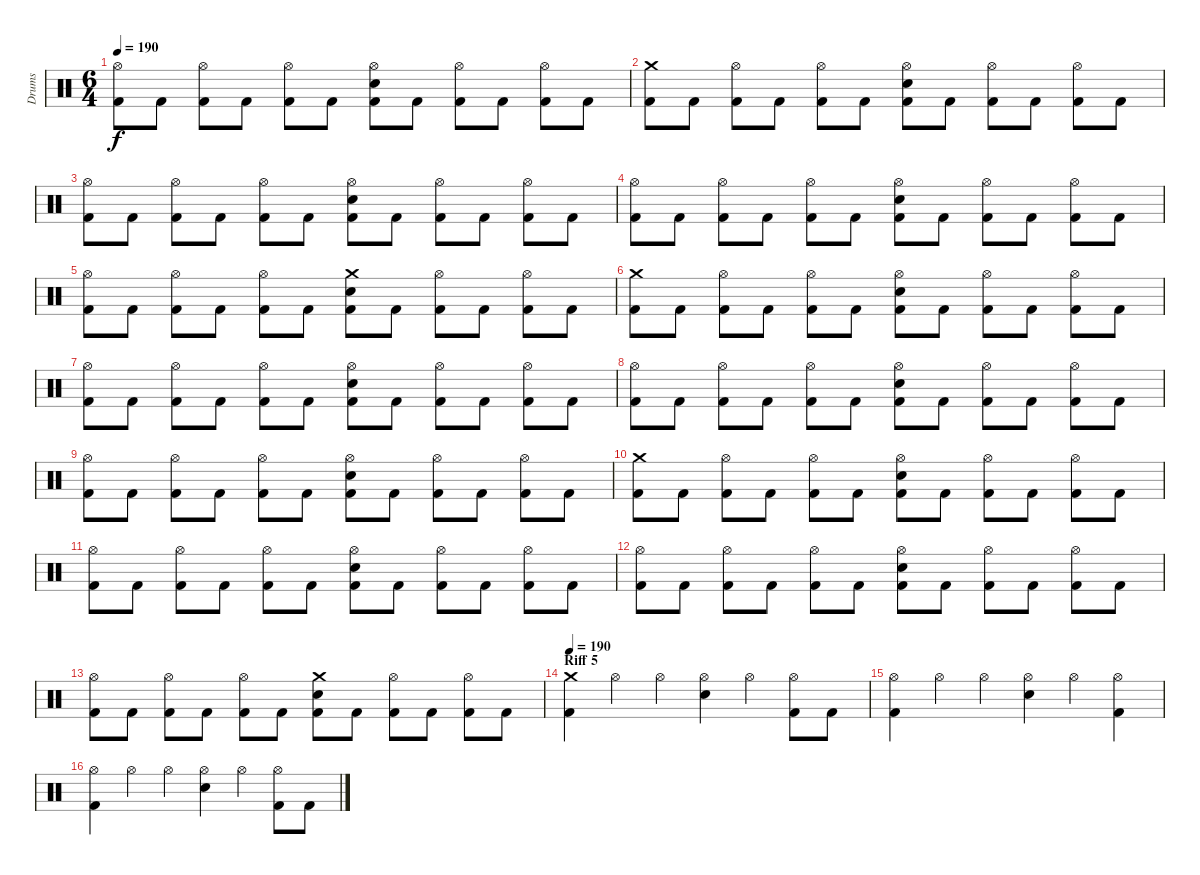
\track ("Drums" "Drums") {instrument percussion}
\staff {score}
\articulation defaults
\ts (6 4)
\tempo 190
\clef neutral
\ks c
("Hi-Hat (open)" "Kick (hit) 2").8{dy f} "Kick (hit) 2".8 ("Hi-Hat (open)" "Kick (hit) 2").8 "Kick (hit) 2".8 ("Hi-Hat (open)" "Kick (hit) 2").8 "Kick (hit) 2".8 ("Hi-Hat (open)" "Electric Snare (hit)" "Kick (hit) 2").8 "Kick (hit) 2".8 ("Hi-Hat (open)" "Kick (hit) 2").8 "Kick (hit) 2".8 ("Hi-Hat (open)" "Kick (hit) 2").8 "Kick (hit) 2".8 |
("Crash medium (hit)" "Kick (hit) 2").8 "Kick (hit) 2".8 ("Hi-Hat (open)" "Kick (hit) 2").8 "Kick (hit) 2".8 ("Hi-Hat (open)" "Kick (hit) 2").8 "Kick (hit) 2".8 ("Hi-Hat (open)" "Electric Snare (hit)" "Kick (hit) 2").8 "Kick (hit) 2".8 ("Hi-Hat (open)" "Kick (hit) 2").8 "Kick (hit) 2".8 ("Hi-Hat (open)" "Kick (hit) 2").8 "Kick (hit) 2".8 |
("Hi-Hat (open)" "Kick (hit) 2").8 "Kick (hit) 2".8 ("Hi-Hat (open)" "Kick (hit) 2").8 "Kick (hit) 2".8 ("Hi-Hat (open)" "Kick (hit) 2").8 "Kick (hit) 2".8 ("Hi-Hat (open)" "Electric Snare (hit)" "Kick (hit) 2").8 "Kick (hit) 2".8 ("Hi-Hat (open)" "Kick (hit) 2").8 "Kick (hit) 2".8 ("Hi-Hat (open)" "Kick (hit) 2").8 "Kick (hit) 2".8 |
("Hi-Hat (open)" "Kick (hit) 2").8 "Kick (hit) 2".8 ("Hi-Hat (open)" "Kick (hit) 2").8 "Kick (hit) 2".8 ("Hi-Hat (open)" "Kick (hit) 2").8 "Kick (hit) 2".8 ("Hi-Hat (open)" "Electric Snare (hit)" "Kick (hit) 2").8 "Kick (hit) 2".8 ("Hi-Hat (open)" "Kick (hit) 2").8 "Kick (hit) 2".8 ("Hi-Hat (open)" "Kick (hit) 2").8 "Kick (hit) 2".8 |
("Hi-Hat (open)" "Kick (hit) 2").8 "Kick (hit) 2".8 ("Hi-Hat (open)" "Kick (hit) 2").8 "Kick (hit) 2".8 ("Hi-Hat (open)" "Kick (hit) 2").8 "Kick (hit) 2".8 ("Crash medium (hit)" "Electric Snare (hit)" "Kick (hit) 2").8 "Kick (hit) 2".8 ("Hi-Hat (open)" "Kick (hit) 2").8 "Kick (hit) 2".8 ("Hi-Hat (open)" "Kick (hit) 2").8 "Kick (hit) 2".8 |
("Crash medium (hit)" "Kick (hit) 2").8{volume 13} "Kick (hit) 2".8 ("Hi-Hat (open)" "Kick (hit) 2").8 "Kick (hit) 2".8 ("Hi-Hat (open)" "Kick (hit) 2").8 "Kick (hit) 2".8 ("Hi-Hat (open)" "Electric Snare (hit)" "Kick (hit) 2").8 "Kick (hit) 2".8 ("Hi-Hat (open)" "Kick (hit) 2").8 "Kick (hit) 2".8 ("Hi-Hat (open)" "Kick (hit) 2").8 "Kick (hit) 2".8 |
("Hi-Hat (open)" "Kick (hit) 2").8 "Kick (hit) 2".8 ("Hi-Hat (open)" "Kick (hit) 2").8 "Kick (hit) 2".8 ("Hi-Hat (open)" "Kick (hit) 2").8 "Kick (hit) 2".8 ("Hi-Hat (open)" "Electric Snare (hit)" "Kick (hit) 2").8 "Kick (hit) 2".8 ("Hi-Hat (open)" "Kick (hit) 2").8 "Kick (hit) 2".8 ("Hi-Hat (open)" "Kick (hit) 2").8 "Kick (hit) 2".8 |
("Hi-Hat (open)" "Kick (hit) 2").8 "Kick (hit) 2".8 ("Hi-Hat (open)" "Kick (hit) 2").8 "Kick (hit) 2".8 ("Hi-Hat (open)" "Kick (hit) 2").8 "Kick (hit) 2".8 ("Hi-Hat (open)" "Electric Snare (hit)" "Kick (hit) 2").8 "Kick (hit) 2".8 ("Hi-Hat (open)" "Kick (hit) 2").8 "Kick (hit) 2".8 ("Hi-Hat (open)" "Kick (hit) 2").8 "Kick (hit) 2".8 |
("Hi-Hat (open)" "Kick (hit) 2").8 "Kick (hit) 2".8 ("Hi-Hat (open)" "Kick (hit) 2").8 "Kick (hit) 2".8 ("Hi-Hat (open)" "Kick (hit) 2").8 "Kick (hit) 2".8 ("Hi-Hat (open)" "Electric Snare (hit)" "Kick (hit) 2").8 "Kick (hit) 2".8 ("Hi-Hat (open)" "Kick (hit) 2").8 "Kick (hit) 2".8 ("Hi-Hat (open)" "Kick (hit) 2").8 "Kick (hit) 2".8 |
("Crash medium (hit)" "Kick (hit) 2").8 "Kick (hit) 2".8 ("Hi-Hat (open)" "Kick (hit) 2").8 "Kick (hit) 2".8 ("Hi-Hat (open)" "Kick (hit) 2").8 "Kick (hit) 2".8 ("Hi-Hat (open)" "Electric Snare (hit)" "Kick (hit) 2").8 "Kick (hit) 2".8 ("Hi-Hat (open)" "Kick (hit) 2").8 "Kick (hit) 2".8 ("Hi-Hat (open)" "Kick (hit) 2").8 "Kick (hit) 2".8 |
("Hi-Hat (open)" "Kick (hit) 2").8 "Kick (hit) 2".8 ("Hi-Hat (open)" "Kick (hit) 2").8 "Kick (hit) 2".8 ("Hi-Hat (open)" "Kick (hit) 2").8 "Kick (hit) 2".8 ("Hi-Hat (open)" "Electric Snare (hit)" "Kick (hit) 2").8 "Kick (hit) 2".8 ("Hi-Hat (open)" "Kick (hit) 2").8 "Kick (hit) 2".8 ("Hi-Hat (open)" "Kick (hit) 2").8 "Kick (hit) 2".8 |
("Hi-Hat (open)" "Kick (hit) 2").8 "Kick (hit) 2".8 ("Hi-Hat (open)" "Kick (hit) 2").8 "Kick (hit) 2".8 ("Hi-Hat (open)" "Kick (hit) 2").8 "Kick (hit) 2".8 ("Hi-Hat (open)" "Electric Snare (hit)" "Kick (hit) 2").8 "Kick (hit) 2".8 ("Hi-Hat (open)" "Kick (hit) 2").8 "Kick (hit) 2".8 ("Hi-Hat (open)" "Kick (hit) 2").8 "Kick (hit) 2".8 |
("Hi-Hat (open)" "Kick (hit) 2").8 "Kick (hit) 2".8 ("Hi-Hat (open)" "Kick (hit) 2").8 "Kick (hit) 2".8 ("Hi-Hat (open)" "Kick (hit) 2").8 "Kick (hit) 2".8 ("Crash medium (hit)" "Electric Snare (hit)" "Kick (hit) 2").8 "Kick (hit) 2".8 ("Hi-Hat (open)" "Kick (hit) 2").8 "Kick (hit) 2".8 ("Hi-Hat (open)" "Kick (hit) 2").8 "Kick (hit) 2".8 |
\section ("" "Riff 5")
\tempo 190
("Crash medium (hit)" "Kick (hit) 2").4 "Hi-Hat (open)".4 "Hi-Hat (open)".4 ("Hi-Hat (open)" "Electric Snare (hit)").4 "Hi-Hat (open)".4 ("Hi-Hat (open)" "Kick (hit) 2").8 "Kick (hit) 2".8 |
("Hi-Hat (open)" "Kick (hit) 2").4 "Hi-Hat (open)".4 "Hi-Hat (open)".4 ("Hi-Hat (open)" "Electric Snare (hit)").4 "Hi-Hat (open)".4 ("Hi-Hat (open)" "Kick (hit) 2").4 |
("Hi-Hat (open)" "Kick (hit) 2").4 "Hi-Hat (open)".4 "Hi-Hat (open)".4 ("Hi-Hat (open)" "Electric Snare (hit)").4 "Hi-Hat (open)".4 ("Hi-Hat (open)" "Kick (hit) 2").8 "Kick (hit) 2".8
